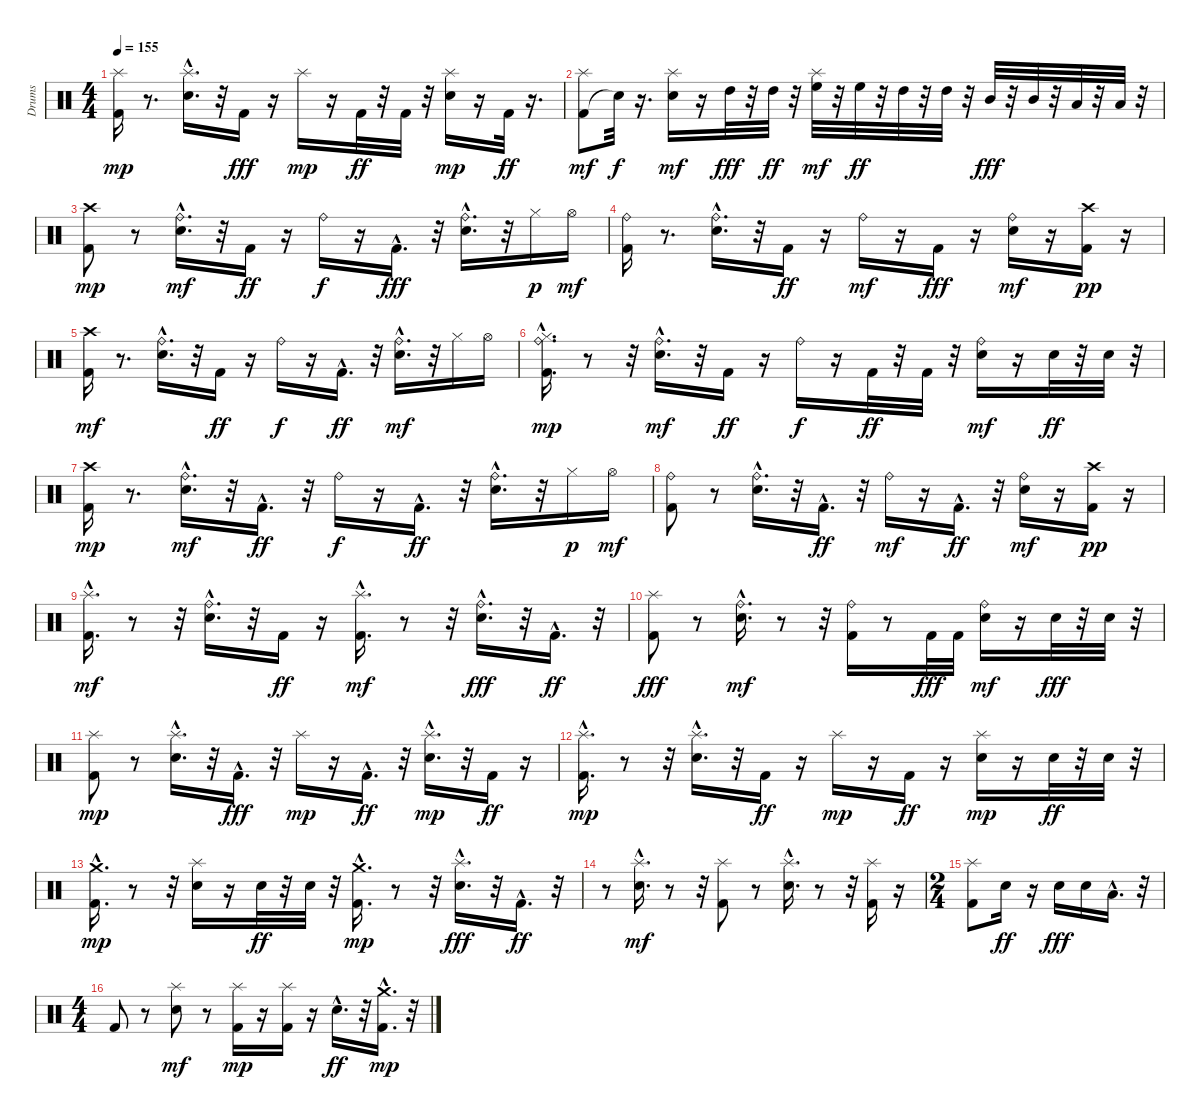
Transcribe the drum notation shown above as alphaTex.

\track ("Drums" "Drums") {instrument percussion}
\staff {score}
\articulation defaults
\ts (4 4)
\tempo 155
\clef neutral
\ks c
("Kick (hit) 2" "Splash (hit)").16{dy mp} r.8{d} ("Electric Snare (hit)"{hac} "Splash (hit)").16{d} r.32 "Kick (hit) 2".16{dy fff} r.16 "Splash (hit)".16{dy mp} r.16 "Kick (hit) 2".32{dy ff} r.32 "Kick (hit) 2".32 r.32 ("Electric Snare (hit)" "Splash (hit)").16{dy mp} r.16 "Kick (hit) 2".32{dy ff} r.16{d} |
("Kick (hit) 2" "Splash (hit)").8{dy mf} "Snare (hit)"{t}.32{dy f} r.16{d} ("Electric Snare (hit)" "Splash (hit)").16{dy mf} r.16 "High Tom (hit)".32{dy fff} r.32 "High Tom (hit)".32{dy ff} r.32 ("High Floor Tom (hit)" "Splash (hit)").32{dy mf} r.32 "High Floor Tom (hit)".32{dy ff} r.32 "High Tom (hit)".32 r.32 "High Tom (hit)".32 r.32 "Mid Tom (hit)".32{dy fff} r.32 "Mid Tom (hit)".32 r.32 "Low Tom (hit)".32 r.32 "Low Tom (hit)".32 r.32 |
("Kick (hit) 2" "Crash high (hit)").8{dy mp} r.8 ("Electric Snare (hit)"{hac} "Ride (bell)").16{d dy mf} r.32 "Kick (hit) 2".16{dy ff} r.16 "Ride (bell)".16{dy f} r.16 "Kick (hit) 2"{hac}.16{d dy fff} r.32 ("Electric Snare (hit)"{hac} "Ride (bell)").16{d} r.32 "Hi-Hat (closed)".16{dy p} "Hi-Hat (open)".16{dy mf} |
("Kick (hit) 2" "Ride (bell)").16 r.8{d} ("Electric Snare (hit)"{hac} "Ride (bell)").16{d} r.32 "Kick (hit) 2".16{dy ff} r.16 "Ride (bell)".16{dy mf} r.16 "Kick (hit) 2".16{dy fff} r.16 ("Electric Snare (hit)" "Ride (bell)").16{dy mf} r.16 ("Kick (hit) 2" "Crash high (hit)").16{dy pp} r.16 |
("Kick (hit) 2" "Crash high (hit)").16{dy mf} r.8{d} ("Electric Snare (hit)"{hac} "Ride (bell)").16{d} r.32 "Kick (hit) 2".16{dy ff} r.16 "Ride (bell)".16{dy f} r.16 "Kick (hit) 2"{hac}.16{d dy ff} r.32 ("Electric Snare (hit)"{hac} "Ride (bell)").16{d dy mf} r.32 "Hi-Hat (closed)".16 "Hi-Hat (open)".16 |
("Kick (hit) 2"{hac} "Ride (bell)" "Hi-Hat (closed)").16{d dy mp} r.8 r.32 ("Electric Snare (hit)"{hac} "Ride (bell)").16{d dy mf} r.32 "Kick (hit) 2".16{dy ff} r.16 "Ride (bell)".16{dy f} r.16 "Kick (hit) 2".32{dy ff} r.32 "Kick (hit) 2".32 r.32 ("Electric Snare (hit)" "Ride (bell)").16{dy mf} r.16 "Electric Snare (hit)".32{dy ff} r.32 "Electric Snare (hit)".32 r.32 |
("Kick (hit) 2" "Crash high (hit)").16{dy mp} r.8{d} ("Electric Snare (hit)"{hac} "Ride (bell)").16{d dy mf} r.32 "Kick (hit) 2"{hac}.16{d dy ff} r.32 "Ride (bell)".16{dy f} r.16 "Kick (hit) 2"{hac}.16{d dy ff} r.32 ("Electric Snare (hit)"{hac} "Ride (bell)").16{d} r.32 "Hi-Hat (closed)".16{dy p} "Hi-Hat (open)".16{dy mf} |
("Kick (hit) 2" "Ride (bell)").8 r.8 ("Electric Snare (hit)"{hac} "Ride (bell)").16{d} r.32 "Kick (hit) 2"{hac}.16{d dy ff} r.32 "Ride (bell)".16{dy mf} r.16 "Kick (hit) 2"{hac}.16{d dy ff} r.32 ("Electric Snare (hit)" "Ride (bell)").16{dy mf} r.16 ("Kick (hit) 2" "Crash high (hit)").16{dy pp} r.16 |
("Kick (hit) 2"{hac} "Splash (hit)").16{d dy mf} r.8 r.32 ("Electric Snare (hit)"{hac} "Ride (bell)").16{d} r.32 "Kick (hit) 2".16{dy ff} r.16 ("Kick (hit) 2"{hac} "Splash (hit)").16{d dy mf} r.8 r.32 ("Electric Snare (hit)"{hac} "Ride (bell)").16{d dy fff} r.32 "Kick (hit) 2"{hac}.16{d dy ff} r.32 |
("Kick (hit) 2" "Splash (hit)").8{dy fff} r.8 ("Electric Snare (hit)"{hac} "Ride (bell)").16{d dy mf} r.8 r.32 ("Kick (hit) 2" "Ride (bell)").16 r.8 "Kick (hit) 2".32{dy fff} "Kick (hit) 2".32 ("Electric Snare (hit)" "Ride (bell)").16{dy mf} r.16 "Electric Snare (hit)".32{dy fff} r.32 "Electric Snare (hit)".32 r.32 |
("Kick (hit) 2" "Splash (hit)").8{dy mp} r.8 ("Electric Snare (hit)"{hac} "Splash (hit)").16{d} r.32 "Kick (hit) 2"{hac}.16{d dy fff} r.32 "Splash (hit)".16{dy mp} r.16 "Kick (hit) 2"{hac}.16{d dy ff} r.32 ("Electric Snare (hit)"{hac} "Splash (hit)").16{d dy mp} r.32 "Kick (hit) 2".16{dy ff} r.16 |
("Kick (hit) 2"{hac} "Splash (hit)").16{d dy mp} r.8 r.32 ("Electric Snare (hit)"{hac} "Splash (hit)").16{d} r.32 "Kick (hit) 2".16{dy ff} r.16 "Splash (hit)".16{dy mp} r.16 "Kick (hit) 2".16{dy ff} r.16 ("Electric Snare (hit)" "Splash (hit)").16{dy mp} r.16 "Electric Snare (hit)".32{dy ff} r.32 "Electric Snare (hit)".32 r.32 |
("Kick (hit) 2"{hac} "Crash medium (hit)").16{d dy mp} r.8 r.32 ("Electric Snare (hit)" "Splash (hit)").16 r.16 "Electric Snare (hit)".32{dy ff} r.32 "Electric Snare (hit)".32 r.32 ("Kick (hit) 2"{hac} "Crash medium (hit)").16{d dy mp} r.8 r.32 ("Electric Snare (hit)"{hac} "Splash (hit)"{hac}).16{d dy fff} r.32 "Kick (hit) 2"{hac}.16{d dy ff} r.32 |
r.8 ("Electric Snare (hit)"{hac} "Splash (hit)").16{d dy mf} r.8 r.32 ("Kick (hit) 2" "Splash (hit)").8 r.8 ("Electric Snare (hit)"{hac} "Splash (hit)").16{d} r.8 r.32 ("Kick (hit) 2" "Splash (hit)").16 r.16 |
\ts (2 4)
("Kick (hit) 2" "Splash (hit)").8 "Electric Snare (hit)".16{dy ff} r.16 "Electric Snare (hit)".16{dy fff} "Electric Snare (hit)".16 "Low Floor Tom (hit)"{hac}.16{d} r.32 |
\ts (4 4)
"Kick (hit) 2".8 r.8 ("Electric Snare (hit)" "Splash (hit)").8{dy mf} r.8 ("Kick (hit) 2" "Splash (hit)").16{dy mp} r.16 ("Kick (hit) 2" "Splash (hit)").16 r.16 "Electric Snare (hit)"{hac}.16{d dy ff} r.32 ("Kick (hit) 2"{hac} "Crash medium (hit)").16{d dy mp} r.32
